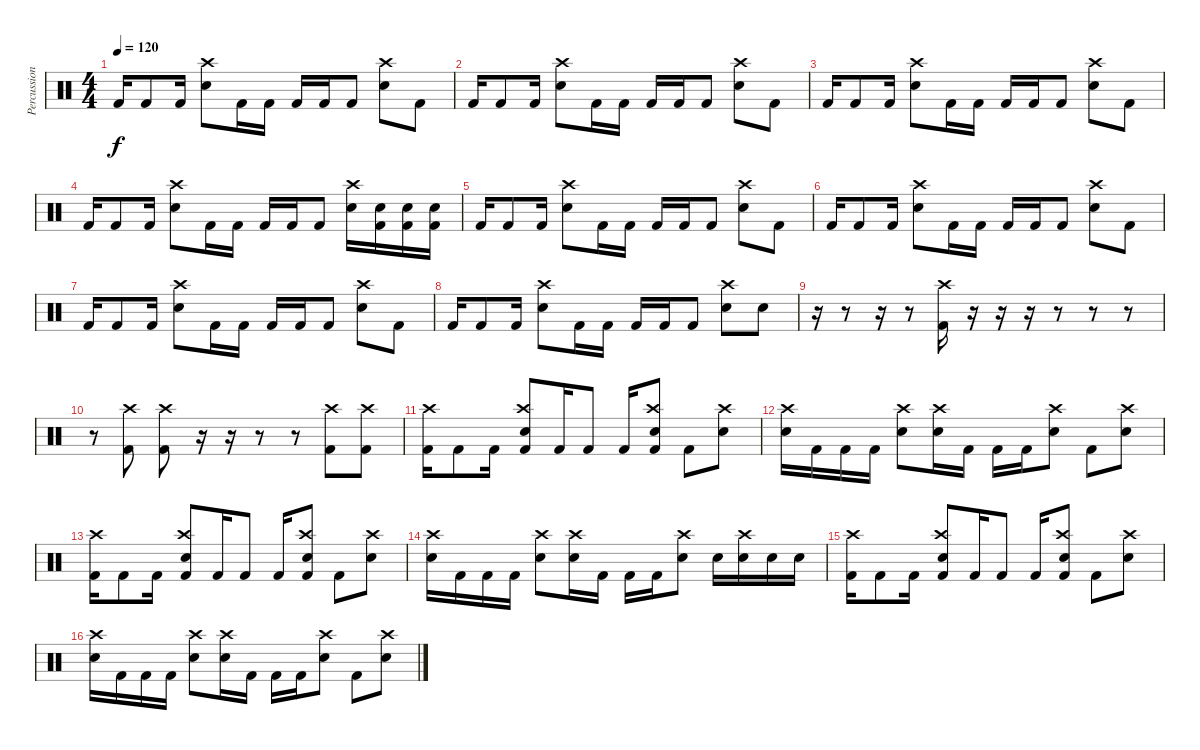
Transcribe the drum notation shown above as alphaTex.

\track ("Percussion" "Percussion") {instrument percussion}
\staff {score}
\articulation defaults
\ts (4 4)
\tempo 120
\clef neutral
\ks c "Kick (hit) 2".16{dy f} "Kick (hit) 2".8 "Kick (hit) 2".16
("Crash high (hit)" "Snare (hit) 2").8 "Kick (hit) 2".16 "Kick (hit) 2".16 "Kick (hit) 2".16 "Kick (hit) 2".16 "Kick (hit) 2".8 ("Crash high (hit)" "Snare (hit) 2").8 "Kick (hit) 2".8 |
"Kick (hit) 2".16 "Kick (hit) 2".8 "Kick (hit) 2".16 ("Crash high (hit)" "Snare (hit) 2").8 "Kick (hit) 2".16 "Kick (hit) 2".16 "Kick (hit) 2".16 "Kick (hit) 2".16 "Kick (hit) 2".8 ("Crash high (hit)" "Snare (hit) 2").8 "Kick (hit) 2".8 |
"Kick (hit) 2".16 "Kick (hit) 2".8 "Kick (hit) 2".16 ("Crash high (hit)" "Snare (hit) 2").8 "Kick (hit) 2".16 "Kick (hit) 2".16 "Kick (hit) 2".16 "Kick (hit) 2".16 "Kick (hit) 2".8 ("Crash high (hit)" "Snare (hit) 2").8 "Kick (hit) 2".8 |
"Kick (hit) 2".16 "Kick (hit) 2".8 "Kick (hit) 2".16 ("Crash high (hit)" "Snare (hit) 2").8 "Kick (hit) 2".16 "Kick (hit) 2".16 "Kick (hit) 2".16 "Kick (hit) 2".16 "Kick (hit) 2".8 ("Crash high (hit)" "Snare (hit) 2").16 ("Snare (hit) 2" "Kick (hit) 2").16 ("Snare (hit) 2" "Kick (hit) 2").16 ("Snare (hit) 2" "Kick (hit) 2").16 |
"Kick (hit) 2".16 "Kick (hit) 2".8 "Kick (hit) 2".16 ("Crash high (hit)" "Snare (hit) 2").8 "Kick (hit) 2".16 "Kick (hit) 2".16 "Kick (hit) 2".16 "Kick (hit) 2".16 "Kick (hit) 2".8 ("Crash high (hit)" "Snare (hit) 2").8 "Kick (hit) 2".8 |
"Kick (hit) 2".16 "Kick (hit) 2".8 "Kick (hit) 2".16 ("Crash high (hit)" "Snare (hit) 2").8 "Kick (hit) 2".16 "Kick (hit) 2".16 "Kick (hit) 2".16 "Kick (hit) 2".16 "Kick (hit) 2".8 ("Crash high (hit)" "Snare (hit) 2").8 "Kick (hit) 2".8 |
"Kick (hit) 2".16 "Kick (hit) 2".8 "Kick (hit) 2".16 ("Crash high (hit)" "Snare (hit) 2").8 "Kick (hit) 2".16 "Kick (hit) 2".16 "Kick (hit) 2".16 "Kick (hit) 2".16 "Kick (hit) 2".8 ("Crash high (hit)" "Snare (hit) 2").8 "Kick (hit) 2".8 |
"Kick (hit) 2".16 "Kick (hit) 2".8 "Kick (hit) 2".16 ("Crash high (hit)" "Snare (hit) 2").8 "Kick (hit) 2".16 "Kick (hit) 2".16 "Kick (hit) 2".16 "Kick (hit) 2".16 "Kick (hit) 2".8 ("Crash high (hit)" "Snare (hit) 2").8 "Snare (hit) 2".8 |
r.16 r.8 r.16 r.8 ("Crash high (hit)" "Kick (hit) 2").16 r.16 r.16 r.16 r.8 r.8 r.8 |
r.8 ("Crash high (hit)" "Kick (hit) 2").8 ("Crash high (hit)" "Kick (hit) 2").8 r.16 r.16 r.8 r.8 ("Crash high (hit)" "Kick (hit) 2").8 ("Kick (hit) 2" "Crash high (hit)").8 |
("Crash high (hit)" "Kick (hit) 2").16 "Kick (hit) 2".8 "Kick (hit) 2".16 ("Crash high (hit)" "Snare (hit) 2" "Kick (hit) 2").8 "Kick (hit) 2".16 "Kick (hit) 2".8 "Kick (hit) 2".16 ("Crash high (hit)" "Snare (hit) 2" "Kick (hit) 2").8 "Kick (hit) 2".8 ("Crash high (hit)" "Snare (hit) 2").8 |
("Crash high (hit)" "Snare (hit) 2").16 "Kick (hit) 2".16 "Kick (hit) 2".16 "Kick (hit) 2".16 ("Crash high (hit)" "Snare (hit) 2").8 ("Crash high (hit)" "Snare (hit) 2").16 "Kick (hit) 2".16 "Kick (hit) 2".16 "Kick (hit) 2".16 ("Crash high (hit)" "Snare (hit) 2").8 "Kick (hit) 2".8 ("Crash high (hit)" "Snare (hit) 2").8 |
("Crash high (hit)" "Kick (hit) 2").16 "Kick (hit) 2".8 "Kick (hit) 2".16 ("Crash high (hit)" "Snare (hit) 2" "Kick (hit) 2").8 "Kick (hit) 2".16 "Kick (hit) 2".8 "Kick (hit) 2".16 ("Crash high (hit)" "Snare (hit) 2" "Kick (hit) 2").8 "Kick (hit) 2".8 ("Crash high (hit)" "Snare (hit) 2").8 |
("Crash high (hit)" "Snare (hit) 2").16 "Kick (hit) 2".16 "Kick (hit) 2".16 "Kick (hit) 2".16 ("Crash high (hit)" "Snare (hit) 2").8 ("Crash high (hit)" "Snare (hit) 2").16 "Kick (hit) 2".16 "Kick (hit) 2".16 "Kick (hit) 2".16 ("Crash high (hit)" "Snare (hit) 2").8 "Snare (hit) 2".16 ("Crash high (hit)" "Snare (hit) 2").16 "Snare (hit) 2".16 "Snare (hit) 2".16 |
("Crash high (hit)" "Kick (hit) 2").16 "Kick (hit) 2".8 "Kick (hit) 2".16 ("Crash high (hit)" "Snare (hit) 2" "Kick (hit) 2").8 "Kick (hit) 2".16 "Kick (hit) 2".8 "Kick (hit) 2".16 ("Crash high (hit)" "Snare (hit) 2" "Kick (hit) 2").8 "Kick (hit) 2".8 ("Crash high (hit)" "Snare (hit) 2").8 |
("Crash high (hit)" "Snare (hit) 2").16 "Kick (hit) 2".16 "Kick (hit) 2".16 "Kick (hit) 2".16 ("Crash high (hit)" "Snare (hit) 2").8 ("Crash high (hit)" "Snare (hit) 2").16 "Kick (hit) 2".16 "Kick (hit) 2".16 "Kick (hit) 2".16 ("Crash high (hit)" "Snare (hit) 2").8 "Kick (hit) 2".8 ("Crash high (hit)" "Snare (hit) 2").8
